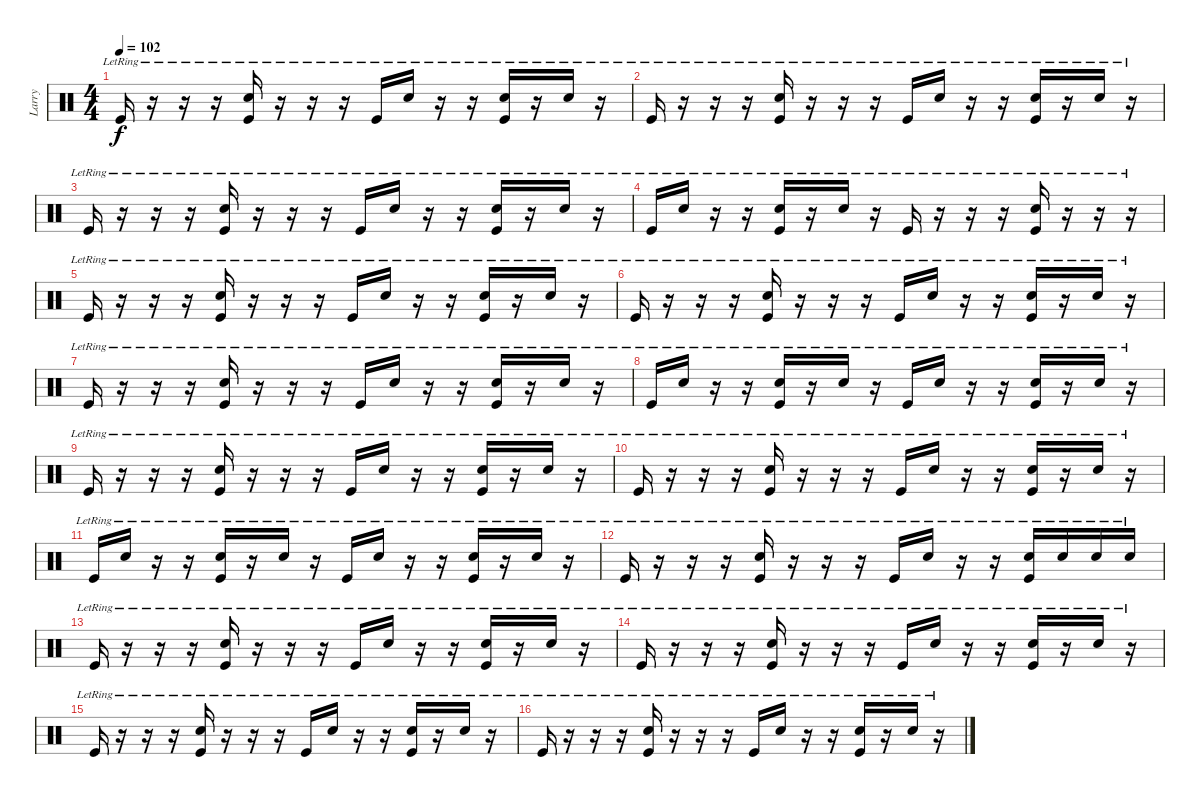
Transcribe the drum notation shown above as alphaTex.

\track ("Larry" "Larry") {instrument percussion}
\staff {score}
\articulation defaults
\ts (4 4)
\tempo 102
\clef neutral
\ks c "Kick (hit)"{lr}.16{dy f}
r.16 r.16 r.16 ("Snare (hit) 2"{lr} "Kick (hit)"{lr}).16 r.16 r.16 r.16 "Kick (hit)"{lr}.16 "Snare (hit) 2"{lr}.16 r.16 r.16 ("Snare (hit) 2"{lr} "Kick (hit)"{lr}).16 r.16 "Snare (hit) 2"{lr}.16 r.16 |
"Kick (hit)"{lr}.16 r.16 r.16 r.16 ("Snare (hit) 2"{lr} "Kick (hit)"{lr}).16 r.16 r.16 r.16 "Kick (hit)"{lr}.16 "Snare (hit) 2"{lr}.16 r.16 r.16 ("Snare (hit) 2"{lr} "Kick (hit)"{lr}).16 r.16 "Snare (hit) 2"{lr}.16 r.16 |
"Kick (hit)"{lr}.16 r.16 r.16 r.16 ("Snare (hit) 2"{lr} "Kick (hit)"{lr}).16 r.16 r.16 r.16 "Kick (hit)"{lr}.16 "Snare (hit) 2"{lr}.16 r.16 r.16 ("Snare (hit) 2"{lr} "Kick (hit)"{lr}).16 r.16 "Snare (hit) 2"{lr}.16 r.16 |
"Kick (hit)"{lr}.16 "Snare (hit) 2"{lr}.16 r.16 r.16 ("Snare (hit) 2"{lr} "Kick (hit)"{lr}).16 r.16 "Snare (hit) 2"{lr}.16 r.16 "Kick (hit)"{lr}.16 r.16 r.16 r.16 ("Snare (hit) 2"{lr} "Kick (hit)"{lr}).16 r.16 r.16 r.16 |
"Kick (hit)"{lr}.16 r.16 r.16 r.16 ("Snare (hit) 2"{lr} "Kick (hit)"{lr}).16 r.16 r.16 r.16 "Kick (hit)"{lr}.16 "Snare (hit) 2"{lr}.16 r.16 r.16 ("Snare (hit) 2"{lr} "Kick (hit)"{lr}).16 r.16 "Snare (hit) 2"{lr}.16 r.16 |
"Kick (hit)"{lr}.16 r.16 r.16 r.16 ("Snare (hit) 2"{lr} "Kick (hit)"{lr}).16 r.16 r.16 r.16 "Kick (hit)"{lr}.16 "Snare (hit) 2"{lr}.16 r.16 r.16 ("Snare (hit) 2"{lr} "Kick (hit)"{lr}).16 r.16 "Snare (hit) 2"{lr}.16 r.16 |
"Kick (hit)"{lr}.16 r.16 r.16 r.16 ("Snare (hit) 2"{lr} "Kick (hit)"{lr}).16 r.16 r.16 r.16 "Kick (hit)"{lr}.16 "Snare (hit) 2"{lr}.16 r.16 r.16 ("Snare (hit) 2"{lr} "Kick (hit)"{lr}).16 r.16 "Snare (hit) 2"{lr}.16 r.16 |
"Kick (hit)"{lr}.16 "Snare (hit) 2"{lr}.16 r.16 r.16 ("Snare (hit) 2"{lr} "Kick (hit)"{lr}).16 r.16 "Snare (hit) 2"{lr}.16 r.16 "Kick (hit)"{lr}.16 "Snare (hit) 2"{lr}.16 r.16 r.16 ("Snare (hit) 2"{lr} "Kick (hit)"{lr}).16 r.16 "Snare (hit) 2"{lr}.16 r.16 |
"Kick (hit)"{lr}.16 r.16 r.16 r.16 ("Snare (hit) 2"{lr} "Kick (hit)"{lr}).16 r.16 r.16 r.16 "Kick (hit)"{lr}.16 "Snare (hit) 2"{lr}.16 r.16 r.16 ("Snare (hit) 2"{lr} "Kick (hit)"{lr}).16 r.16 "Snare (hit) 2"{lr}.16 r.16 |
"Kick (hit)"{lr}.16 r.16 r.16 r.16 ("Snare (hit) 2"{lr} "Kick (hit)"{lr}).16 r.16 r.16 r.16 "Kick (hit)"{lr}.16 "Snare (hit) 2"{lr}.16 r.16 r.16 ("Snare (hit) 2"{lr} "Kick (hit)"{lr}).16 r.16 "Snare (hit) 2"{lr}.16 r.16 |
"Kick (hit)"{lr}.16 "Snare (hit) 2"{lr}.16 r.16 r.16 ("Snare (hit) 2"{lr} "Kick (hit)"{lr}).16 r.16 "Snare (hit) 2"{lr}.16 r.16 "Kick (hit)"{lr}.16 "Snare (hit) 2"{lr}.16 r.16 r.16 ("Snare (hit) 2"{lr} "Kick (hit)"{lr}).16 r.16 "Snare (hit) 2"{lr}.16 r.16 |
"Kick (hit)"{lr}.16 r.16 r.16 r.16 ("Snare (hit) 2"{lr} "Kick (hit)"{lr}).16 r.16 r.16 r.16 "Kick (hit)"{lr}.16 "Snare (hit) 2"{lr}.16 r.16 r.16 ("Snare (hit) 2"{lr} "Kick (hit)"{lr}).16 "Snare (hit) 2"{lr}.16 "Snare (hit) 2"{lr}.16 "Snare (hit) 2"{lr}.16 |
"Kick (hit)"{lr}.16 r.16 r.16 r.16 ("Snare (hit) 2"{lr} "Kick (hit)"{lr}).16 r.16 r.16 r.16 "Kick (hit)"{lr}.16 "Snare (hit) 2"{lr}.16 r.16 r.16 ("Snare (hit) 2"{lr} "Kick (hit)"{lr}).16 r.16 "Snare (hit) 2"{lr}.16 r.16 |
"Kick (hit)"{lr}.16 r.16 r.16 r.16 ("Snare (hit) 2"{lr} "Kick (hit)"{lr}).16 r.16 r.16 r.16 "Kick (hit)"{lr}.16 "Snare (hit) 2"{lr}.16 r.16 r.16 ("Snare (hit) 2"{lr} "Kick (hit)"{lr}).16 r.16 "Snare (hit) 2"{lr}.16 r.16 |
"Kick (hit)"{lr}.16 r.16 r.16 r.16 ("Snare (hit) 2"{lr} "Kick (hit)"{lr}).16 r.16 r.16 r.16 "Kick (hit)"{lr}.16 "Snare (hit) 2"{lr}.16 r.16 r.16 ("Snare (hit) 2"{lr} "Kick (hit)"{lr}).16 r.16 "Snare (hit) 2"{lr}.16 r.16 |
"Kick (hit)"{lr}.16 r.16 r.16 r.16 ("Snare (hit) 2"{lr} "Kick (hit)"{lr}).16 r.16 r.16 r.16 "Kick (hit)"{lr}.16 "Snare (hit) 2"{lr}.16 r.16 r.16 ("Snare (hit) 2"{lr} "Kick (hit)"{lr}).16 r.16 "Snare (hit) 2"{lr}.16 r.16
